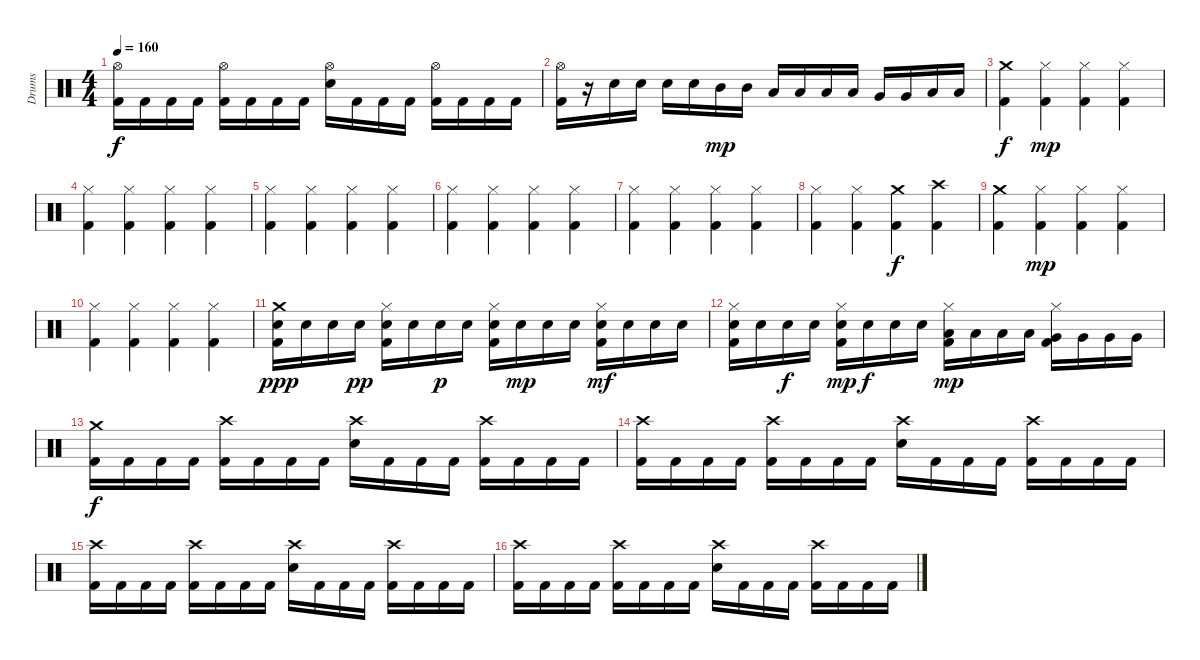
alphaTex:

\track ("Drums" "Drums") {instrument percussion}
\staff {score}
\articulation defaults
\ts (4 4)
\tempo 160
\clef neutral
\ks c
("Hi-Hat (open)" "Kick (hit) 2").16{dy f} "Kick (hit) 2".16 "Kick (hit) 2".16 "Kick (hit) 2".16 ("Hi-Hat (open)" "Kick (hit) 2").16 "Kick (hit) 2".16 "Kick (hit) 2".16 "Kick (hit) 2".16 ("Hi-Hat (open)" "Snare (hit) 2").16 "Kick (hit) 2".16 "Kick (hit) 2".16 "Kick (hit) 2".16 ("Hi-Hat (open)" "Kick (hit) 2").16 "Kick (hit) 2".16 "Kick (hit) 2".16 "Kick (hit) 2".16 |
("Hi-Hat (open)" "Kick (hit) 2").16 r.16 "Snare (hit) 2".16 "Snare (hit) 2".16 "Snare (hit) 2".16 "Snare (hit) 2".16 "Mid Tom (hit)".16{dy mp} "Mid Tom (hit)".16 "Low Tom (hit)".16 "Low Tom (hit)".16 "Low Tom (hit)".16 "Low Tom (hit)".16 "Very Low Tom (hit)".16 "Very Low Tom (hit)".16 "Low Floor Tom (hit)".16 "Low Floor Tom (hit)".16 |
("Crash medium (hit)" "Kick (hit) 2").4{dy f} ("Hi-Hat (closed)" "Kick (hit) 2").4{dy mp} ("Hi-Hat (closed)" "Kick (hit) 2").4 ("Hi-Hat (closed)" "Kick (hit) 2").4 |
("Hi-Hat (closed)" "Kick (hit) 2").4 ("Hi-Hat (closed)" "Kick (hit) 2").4 ("Hi-Hat (closed)" "Kick (hit) 2").4 ("Hi-Hat (closed)" "Kick (hit) 2").4 |
("Hi-Hat (closed)" "Kick (hit) 2").4 ("Hi-Hat (closed)" "Kick (hit) 2").4 ("Hi-Hat (closed)" "Kick (hit) 2").4 ("Hi-Hat (closed)" "Kick (hit) 2").4 |
("Hi-Hat (closed)" "Kick (hit) 2").4 ("Hi-Hat (closed)" "Kick (hit) 2").4 ("Hi-Hat (closed)" "Kick (hit) 2").4 ("Hi-Hat (closed)" "Kick (hit) 2").4 |
("Hi-Hat (closed)" "Kick (hit) 2").4 ("Hi-Hat (closed)" "Kick (hit) 2").4 ("Hi-Hat (closed)" "Kick (hit) 2").4 ("Hi-Hat (closed)" "Kick (hit) 2").4 |
("Hi-Hat (closed)" "Kick (hit) 2").4 ("Hi-Hat (closed)" "Kick (hit) 2").4 ("Crash medium (hit)" "Kick (hit) 2").4{dy f} ("Crash high (hit)" "Kick (hit) 2").4 |
("Crash medium (hit)" "Kick (hit) 2").4 ("Hi-Hat (closed)" "Kick (hit) 2").4{dy mp} ("Hi-Hat (closed)" "Kick (hit) 2").4 ("Hi-Hat (closed)" "Kick (hit) 2").4 |
("Hi-Hat (closed)" "Kick (hit) 2").4 ("Hi-Hat (closed)" "Kick (hit) 2").4 ("Hi-Hat (closed)" "Kick (hit) 2").4 ("Hi-Hat (closed)" "Kick (hit) 2").4 |
("Crash medium (hit)" "Snare (hit) 2" "Kick (hit) 2").16{dy ppp} "Snare (hit) 2".16 "Snare (hit) 2".16 "Snare (hit) 2".16{dy pp} ("Hi-Hat (closed)" "Snare (hit) 2" "Kick (hit) 2").16 "Snare (hit) 2".16 "Snare (hit) 2".16{dy p} "Snare (hit) 2".16 ("Hi-Hat (closed)" "Snare (hit) 2" "Kick (hit) 2").16 "Snare (hit) 2".16{dy mp} "Snare (hit) 2".16 "Snare (hit) 2".16 ("Hi-Hat (closed)" "Snare (hit) 2" "Kick (hit) 2").16{dy mf} "Snare (hit) 2".16 "Snare (hit) 2".16 "Snare (hit) 2".16 |
("Hi-Hat (closed)" "Snare (hit) 2" "Kick (hit) 2").16 "Snare (hit) 2".16 "Snare (hit) 2".16{dy f} "Snare (hit) 2".16 ("Hi-Hat (closed)" "Snare (hit) 2" "Kick (hit) 2").16{dy mp} "Snare (hit) 2".16{dy f} "Snare (hit) 2".16 "Snare (hit) 2".16 ("Hi-Hat (closed)" "Low Tom (hit)" "Kick (hit) 2").16{dy mp} "Low Tom (hit)".16 "Low Tom (hit)".16 "Low Tom (hit)".16 ("Hi-Hat (closed)" "Very Low Tom (hit)" "Kick (hit) 2").16 "Very Low Tom (hit)".16 "Very Low Tom (hit)".16 "Very Low Tom (hit)".16 |
("Crash medium (hit)" "Kick (hit) 2").16{dy f} "Kick (hit) 2".16 "Kick (hit) 2".16 "Kick (hit) 2".16 ("Crash high (hit)" "Kick (hit) 2").16 "Kick (hit) 2".16 "Kick (hit) 2".16 "Kick (hit) 2".16 ("Crash high (hit)" "Snare (hit) 2").16 "Kick (hit) 2".16 "Kick (hit) 2".16 "Kick (hit) 2".16 ("Crash high (hit)" "Kick (hit) 2").16 "Kick (hit) 2".16 "Kick (hit) 2".16 "Kick (hit) 2".16 |
("Crash high (hit)" "Kick (hit) 2").16 "Kick (hit) 2".16 "Kick (hit) 2".16 "Kick (hit) 2".16 ("Crash high (hit)" "Kick (hit) 2").16 "Kick (hit) 2".16 "Kick (hit) 2".16 "Kick (hit) 2".16 ("Crash high (hit)" "Snare (hit) 2").16 "Kick (hit) 2".16 "Kick (hit) 2".16 "Kick (hit) 2".16 ("Crash high (hit)" "Kick (hit) 2").16 "Kick (hit) 2".16 "Kick (hit) 2".16 "Kick (hit) 2".16 |
("Crash high (hit)" "Kick (hit) 2").16 "Kick (hit) 2".16 "Kick (hit) 2".16 "Kick (hit) 2".16 ("Crash high (hit)" "Kick (hit) 2").16 "Kick (hit) 2".16 "Kick (hit) 2".16 "Kick (hit) 2".16 ("Crash high (hit)" "Snare (hit) 2").16 "Kick (hit) 2".16 "Kick (hit) 2".16 "Kick (hit) 2".16 ("Crash high (hit)" "Kick (hit) 2").16 "Kick (hit) 2".16 "Kick (hit) 2".16 "Kick (hit) 2".16 |
("Crash high (hit)" "Kick (hit) 2").16 "Kick (hit) 2".16 "Kick (hit) 2".16 "Kick (hit) 2".16 ("Crash high (hit)" "Kick (hit) 2").16 "Kick (hit) 2".16 "Kick (hit) 2".16 "Kick (hit) 2".16 ("Crash high (hit)" "Snare (hit) 2").16 "Kick (hit) 2".16 "Kick (hit) 2".16 "Kick (hit) 2".16 ("Crash high (hit)" "Kick (hit) 2").16 "Kick (hit) 2".16 "Kick (hit) 2".16 "Kick (hit) 2".16
